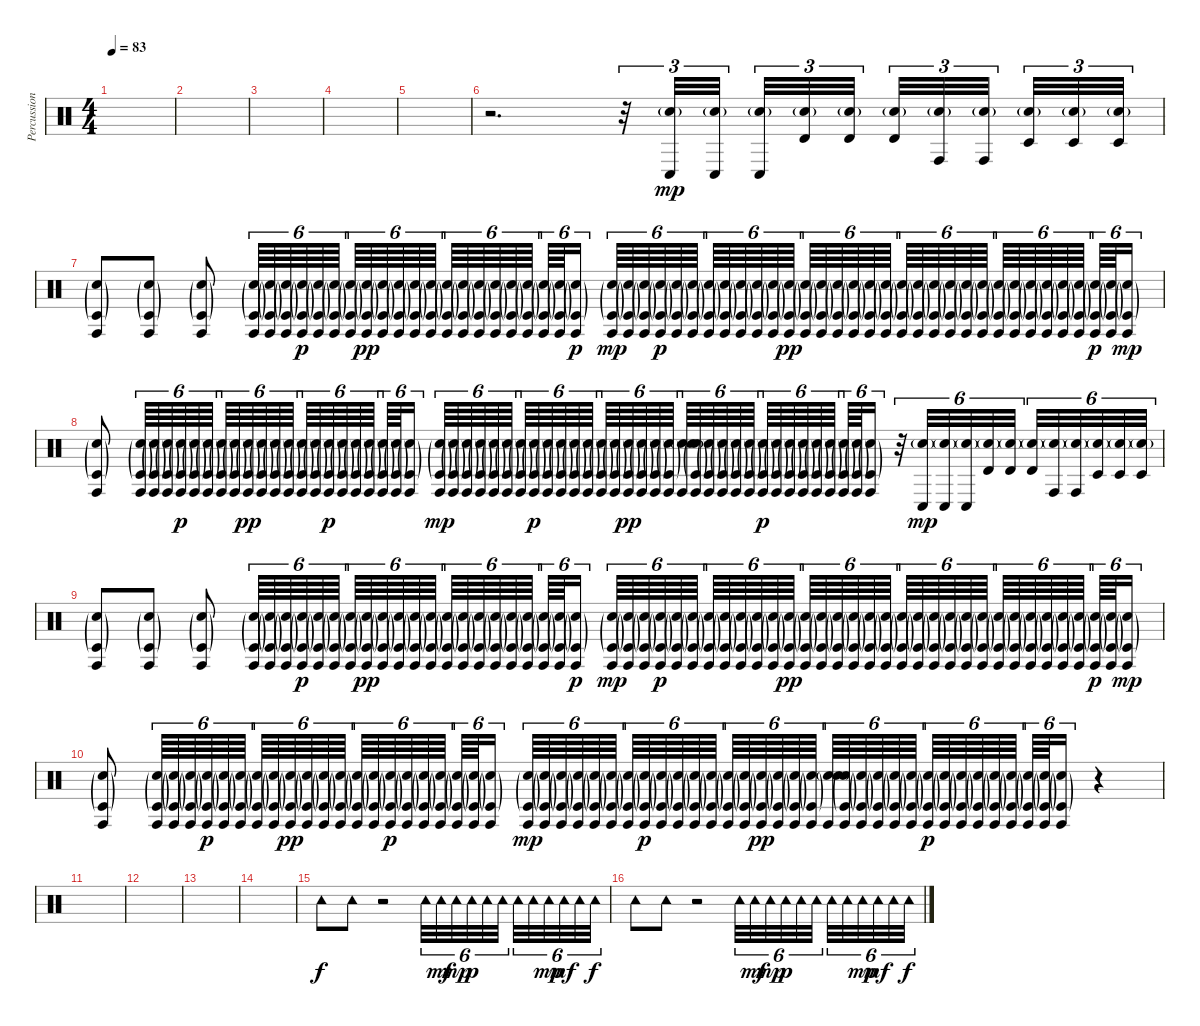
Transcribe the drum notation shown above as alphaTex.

\track ("Percussions" "Percussion") {instrument percussion}
\staff {score}
\articulation defaults
\ts (4 4)
\tempo 83
\clef neutral
\ks c
|
|
|
|
|
r.2{d} r.32{tu (3 2)} ("Conga low (hit)" "Snare (hit) 2"{g}).32{tu (3 2) dy mp} ("Conga low (hit)" "Snare (hit) 2"{g}).32{tu (3 2)} ("Conga low (hit)" "Snare (hit) 2"{g}).32{tu (3 2)} ("Timbale high (hit)" "Snare (hit) 2"{g}).32{tu (3 2)} ("Timbale high (hit)" "Snare (hit) 2"{g}).32{tu (3 2)} ("Timbale high (hit)" "Snare (hit) 2"{g}).32{tu (3 2)} ("Conga high (hit)" "Snare (hit) 2"{g}).32{tu (3 2)} ("Conga high (hit)" "Snare (hit) 2"{g}).32{tu (3 2)} ("Timbale low (hit)" "Snare (hit) 2"{g}).32{tu (3 2)} ("Timbale low (hit)" "Snare (hit) 2"{g}).32{tu (3 2)} ("Timbale low (hit)" "Snare (hit) 2"{g}).32{tu (3 2)} |
("Conga high (hit)" "Timbale low (hit)"{g} "Snare (hit) 2"{g}).8 ("Conga high (hit)" "Timbale low (hit)"{g} "Snare (hit) 2"{g}).8 ("Conga high (hit)" "Timbale low (hit)"{g} "Snare (hit) 2"{g}).8 ("Conga high (hit)" "Timbale low (hit)"{g} "Snare (hit) 2"{g}).64{tu (6 4)} ("Conga high (hit)" "Timbale low (hit)"{g} "Snare (hit) 2"{g}).64{tu (6 4)} ("Conga high (hit)" "Timbale low (hit)"{g} "Snare (hit) 2"{g}).64{tu (6 4)} ("Conga high (hit)" "Timbale low (hit)"{g} "Snare (hit) 2"{g}).64{tu (6 4) dy p} ("Conga high (hit)" "Timbale low (hit)"{g} "Snare (hit) 2"{g}).64{tu (6 4)} ("Conga high (hit)" "Timbale low (hit)"{g} "Snare (hit) 2"{g}).64{tu (6 4)} ("Conga high (hit)" "Timbale low (hit)"{g} "Snare (hit) 2"{g}).64{tu (6 4)} ("Conga high (hit)" "Timbale low (hit)"{g} "Snare (hit) 2"{g}).64{tu (6 4) dy pp} ("Conga high (hit)" "Timbale low (hit)"{g} "Snare (hit) 2"{g}).64{tu (6 4)} ("Conga high (hit)" "Timbale low (hit)"{g} "Snare (hit) 2"{g}).64{tu (6 4)} ("Conga high (hit)" "Timbale low (hit)"{g} "Snare (hit) 2"{g}).64{tu (6 4)} ("Conga high (hit)" "Timbale low (hit)"{g} "Snare (hit) 2"{g}).64{tu (6 4)} ("Conga high (hit)" "Timbale low (hit)"{g} "Snare (hit) 2"{g}).64{tu (6 4)} ("Conga high (hit)" "Timbale low (hit)"{g} "Snare (hit) 2"{g}).64{tu (6 4)} ("Conga high (hit)" "Timbale low (hit)"{g} "Snare (hit) 2"{g}).64{tu (6 4)} ("Conga high (hit)" "Timbale low (hit)"{g} "Snare (hit) 2"{g}).64{tu (6 4)} ("Conga high (hit)" "Timbale low (hit)"{g} "Snare (hit) 2"{g}).64{tu (6 4)} ("Conga high (hit)" "Timbale low (hit)"{g} "Snare (hit) 2"{g}).64{tu (6 4)} ("Conga high (hit)" "Timbale low (hit)"{g} "Snare (hit) 2"{g}).64{tu (6 4)} ("Conga high (hit)" "Timbale low (hit)"{g} "Snare (hit) 2"{g}).64{tu (6 4)} ("Conga high (hit)" "Timbale low (hit)"{g} "Snare (hit) 2"{g}).16{tu (6 4) dy p} ("Conga high (hit)" "Timbale low (hit)"{g} "Snare (hit) 2"{g}).64{tu (6 4) dy mp} ("Conga high (hit)" "Timbale low (hit)"{g} "Snare (hit) 2"{g}).64{tu (6 4)} ("Conga high (hit)" "Timbale low (hit)"{g} "Snare (hit) 2"{g}).64{tu (6 4)} ("Conga high (hit)" "Timbale low (hit)"{g} "Snare (hit) 2"{g}).64{tu (6 4) dy p} ("Conga high (hit)" "Timbale low (hit)"{g} "Snare (hit) 2"{g}).64{tu (6 4)} ("Conga high (hit)" "Timbale low (hit)"{g} "Snare (hit) 2"{g}).64{tu (6 4)} ("Conga high (hit)" "Timbale low (hit)"{g} "Snare (hit) 2"{g}).64{tu (6 4)} ("Conga high (hit)" "Timbale low (hit)"{g} "Snare (hit) 2"{g}).64{tu (6 4)} ("Conga high (hit)" "Timbale low (hit)"{g} "Snare (hit) 2"{g}).64{tu (6 4)} ("Conga high (hit)" "Timbale low (hit)"{g} "Snare (hit) 2"{g}).64{tu (6 4)} ("Conga high (hit)" "Timbale low (hit)"{g} "Snare (hit) 2"{g}).64{tu (6 4)} ("Conga high (hit)" "Timbale low (hit)"{g} "Snare (hit) 2"{g}).64{tu (6 4) dy pp} ("Conga high (hit)" "Timbale low (hit)"{g} "Snare (hit) 2"{g}).64{tu (6 4)} ("Conga high (hit)" "Timbale low (hit)"{g} "Snare (hit) 2"{g}).64{tu (6 4)} ("Conga high (hit)" "Timbale low (hit)"{g} "Snare (hit) 2"{g}).64{tu (6 4)} ("Conga high (hit)" "Timbale low (hit)"{g} "Snare (hit) 2"{g}).64{tu (6 4)} ("Conga high (hit)" "Timbale low (hit)"{g} "Snare (hit) 2"{g}).64{tu (6 4)} ("Conga high (hit)" "Timbale low (hit)"{g} "Snare (hit) 2"{g}).64{tu (6 4)} ("Conga high (hit)" "Timbale low (hit)"{g} "Snare (hit) 2"{g}).64{tu (6 4)} ("Conga high (hit)" "Timbale low (hit)"{g} "Snare (hit) 2"{g}).64{tu (6 4)} ("Conga high (hit)" "Timbale low (hit)"{g} "Snare (hit) 2"{g}).64{tu (6 4)} ("Conga high (hit)" "Timbale low (hit)"{g} "Snare (hit) 2"{g}).64{tu (6 4)} ("Conga high (hit)" "Timbale low (hit)"{g} "Snare (hit) 2"{g}).64{tu (6 4)} ("Conga high (hit)" "Timbale low (hit)"{g} "Snare (hit) 2"{g}).64{tu (6 4)} ("Conga high (hit)" "Timbale low (hit)"{g} "Snare (hit) 2"{g}).64{tu (6 4)} ("Conga high (hit)" "Timbale low (hit)"{g} "Snare (hit) 2"{g}).64{tu (6 4)} ("Conga high (hit)" "Timbale low (hit)"{g} "Snare (hit) 2"{g}).64{tu (6 4)} ("Conga high (hit)" "Timbale low (hit)"{g} "Snare (hit) 2"{g}).64{tu (6 4)} ("Conga high (hit)" "Timbale low (hit)"{g} "Snare (hit) 2"{g}).64{tu (6 4)} ("Conga high (hit)" "Timbale low (hit)"{g} "Snare (hit) 2"{g}).64{tu (6 4)} ("Conga high (hit)" "Timbale low (hit)"{g} "Snare (hit) 2"{g}).64{tu (6 4) dy p} ("Conga high (hit)" "Timbale low (hit)"{g} "Snare (hit) 2"{g}).64{tu (6 4)} ("Conga high (hit)" "Timbale low (hit)"{g} "Snare (hit) 2"{g}).16{tu (6 4) dy mp} |
("Conga high (hit)" "Timbale low (hit)"{g} "Snare (hit) 2"{g}).8 ("Conga high (hit)" "Timbale low (hit)"{g} "Snare (hit) 2"{g}).64{tu (6 4)} ("Conga high (hit)" "Timbale low (hit)"{g} "Snare (hit) 2"{g}).64{tu (6 4)} ("Conga high (hit)" "Timbale low (hit)"{g} "Snare (hit) 2"{g}).64{tu (6 4)} ("Conga high (hit)" "Timbale low (hit)"{g} "Snare (hit) 2"{g}).64{tu (6 4) dy p} ("Conga high (hit)" "Timbale low (hit)"{g} "Snare (hit) 2"{g}).64{tu (6 4)} ("Conga high (hit)" "Timbale low (hit)"{g} "Snare (hit) 2"{g}).64{tu (6 4)} ("Conga high (hit)" "Timbale low (hit)"{g} "Snare (hit) 2"{g}).64{tu (6 4)} ("Conga high (hit)" "Timbale low (hit)"{g} "Snare (hit) 2"{g}).64{tu (6 4)} ("Conga high (hit)" "Timbale low (hit)"{g} "Snare (hit) 2"{g}).64{tu (6 4) dy pp} ("Conga high (hit)" "Timbale low (hit)"{g} "Snare (hit) 2"{g}).64{tu (6 4)} ("Conga high (hit)" "Timbale low (hit)"{g} "Snare (hit) 2"{g}).64{tu (6 4)} ("Conga high (hit)" "Timbale low (hit)"{g} "Snare (hit) 2"{g}).64{tu (6 4)} ("Conga high (hit)" "Timbale low (hit)"{g} "Snare (hit) 2"{g}).64{tu (6 4)} ("Conga high (hit)" "Timbale low (hit)"{g} "Snare (hit) 2"{g}).64{tu (6 4)} ("Conga high (hit)" "Timbale low (hit)"{g} "Snare (hit) 2"{g}).64{tu (6 4) dy p} ("Conga high (hit)" "Timbale low (hit)"{g} "Snare (hit) 2"{g}).64{tu (6 4)} ("Conga high (hit)" "Timbale low (hit)"{g} "Snare (hit) 2"{g}).64{tu (6 4)} ("Conga high (hit)" "Timbale low (hit)"{g} "Snare (hit) 2"{g}).64{tu (6 4)} ("Conga high (hit)" "Timbale low (hit)"{g} "Snare (hit) 2"{g}).64{tu (6 4)} ("Conga high (hit)" "Timbale low (hit)"{g} "Snare (hit) 2"{g}).64{tu (6 4)} ("Conga high (hit)" "Timbale low (hit)"{g} "Snare (hit) 2"{g}).16{tu (6 4)} ("Conga high (hit)" "Timbale low (hit)"{g} "Snare (hit) 2"{g}).64{tu (6 4) dy mp} ("Conga high (hit)" "Timbale low (hit)"{g} "Snare (hit) 2"{g}).64{tu (6 4)} ("Conga high (hit)" "Timbale low (hit)"{g} "Snare (hit) 2"{g}).64{tu (6 4)} ("Conga high (hit)" "Timbale low (hit)"{g} "Snare (hit) 2"{g}).64{tu (6 4)} ("Conga high (hit)" "Timbale low (hit)"{g} "Snare (hit) 2"{g}).64{tu (6 4)} ("Conga high (hit)" "Timbale low (hit)"{g} "Snare (hit) 2"{g}).64{tu (6 4)} ("Conga high (hit)" "Timbale low (hit)"{g} "Snare (hit) 2"{g}).64{tu (6 4)} ("Conga high (hit)" "Timbale low (hit)"{g} "Snare (hit) 2"{g}).64{tu (6 4) dy p} ("Conga high (hit)" "Timbale low (hit)"{g} "Snare (hit) 2"{g}).64{tu (6 4)} ("Conga high (hit)" "Timbale low (hit)"{g} "Snare (hit) 2"{g}).64{tu (6 4)} ("Conga high (hit)" "Timbale low (hit)"{g} "Snare (hit) 2"{g}).64{tu (6 4)} ("Conga high (hit)" "Timbale low (hit)"{g} "Snare (hit) 2"{g}).64{tu (6 4)} ("Conga high (hit)" "Timbale low (hit)"{g} "Snare (hit) 2"{g}).64{tu (6 4)} ("Conga high (hit)" "Timbale low (hit)"{g} "Snare (hit) 2"{g}).64{tu (6 4)} ("Conga high (hit)" "Timbale low (hit)"{g} "Snare (hit) 2"{g}).64{tu (6 4) dy pp} ("Conga high (hit)" "Timbale low (hit)"{g} "Snare (hit) 2"{g}).64{tu (6 4)} ("Conga high (hit)" "Timbale low (hit)"{g} "Snare (hit) 2"{g}).64{tu (6 4)} ("Conga high (hit)" "Timbale low (hit)"{g} "Snare (hit) 2"{g}).64{tu (6 4)} ("Conga high (hit)" "Snare (hit)"{g} "Snare (hit) 2"{g}).64{tu (6 4)} ("Conga high (hit)" "Timbale low (hit)"{g} "Snare (hit) 2"{g}).64{tu (6 4)} ("Conga high (hit)" "Timbale low (hit)"{g} "Snare (hit) 2"{g}).64{tu (6 4)} ("Conga high (hit)" "Timbale low (hit)"{g} "Snare (hit) 2"{g}).64{tu (6 4)} ("Conga high (hit)" "Timbale low (hit)"{g} "Snare (hit) 2"{g}).64{tu (6 4)} ("Conga high (hit)" "Timbale low (hit)"{g} "Snare (hit) 2"{g}).64{tu (6 4)} ("Conga high (hit)" "Timbale low (hit)"{g} "Snare (hit) 2"{g}).64{tu (6 4) dy p} ("Conga high (hit)" "Timbale low (hit)"{g} "Snare (hit) 2"{g}).64{tu (6 4)} ("Conga high (hit)" "Timbale low (hit)"{g} "Snare (hit) 2"{g}).64{tu (6 4)} ("Conga high (hit)" "Timbale low (hit)"{g} "Snare (hit) 2"{g}).64{tu (6 4)} ("Conga high (hit)" "Timbale low (hit)"{g} "Snare (hit) 2"{g}).64{tu (6 4)} ("Conga high (hit)" "Timbale low (hit)"{g} "Snare (hit) 2"{g}).64{tu (6 4)} ("Conga high (hit)" "Timbale low (hit)"{g} "Snare (hit) 2"{g}).64{tu (6 4)} ("Conga high (hit)" "Timbale low (hit)"{g} "Snare (hit) 2"{g}).64{tu (6 4)} ("Conga high (hit)" "Timbale low (hit)"{g} "Snare (hit) 2"{g}).16{tu (6 4)} r.32{tu (6 4)} ("Conga low (hit)" "Snare (hit) 2"{g}).32{tu (6 4) dy mp} ("Conga low (hit)" "Snare (hit) 2"{g}).32{tu (6 4)} ("Conga low (hit)" "Snare (hit) 2"{g}).32{tu (6 4)} ("Timbale high (hit)" "Snare (hit) 2"{g}).32{tu (6 4)} ("Timbale high (hit)" "Snare (hit) 2"{g}).32{tu (6 4)} ("Timbale high (hit)" "Snare (hit) 2"{g}).32{tu (6 4)} ("Conga high (hit)" "Snare (hit) 2"{g}).32{tu (6 4)} ("Conga high (hit)" "Snare (hit) 2"{g}).32{tu (6 4)} ("Timbale low (hit)" "Snare (hit) 2"{g}).32{tu (6 4)} ("Timbale low (hit)" "Snare (hit) 2"{g}).32{tu (6 4)} ("Timbale low (hit)" "Snare (hit) 2"{g}).32{tu (6 4)} |
("Conga high (hit)" "Timbale low (hit)"{g} "Snare (hit) 2"{g}).8 ("Conga high (hit)" "Timbale low (hit)"{g} "Snare (hit) 2"{g}).8 ("Conga high (hit)" "Timbale low (hit)"{g} "Snare (hit) 2"{g}).8 ("Conga high (hit)" "Timbale low (hit)"{g} "Snare (hit) 2"{g}).64{tu (6 4)} ("Conga high (hit)" "Timbale low (hit)"{g} "Snare (hit) 2"{g}).64{tu (6 4)} ("Conga high (hit)" "Timbale low (hit)"{g} "Snare (hit) 2"{g}).64{tu (6 4)} ("Conga high (hit)" "Timbale low (hit)"{g} "Snare (hit) 2"{g}).64{tu (6 4) dy p} ("Conga high (hit)" "Timbale low (hit)"{g} "Snare (hit) 2"{g}).64{tu (6 4)} ("Conga high (hit)" "Timbale low (hit)"{g} "Snare (hit) 2"{g}).64{tu (6 4)} ("Conga high (hit)" "Timbale low (hit)"{g} "Snare (hit) 2"{g}).64{tu (6 4)} ("Conga high (hit)" "Timbale low (hit)"{g} "Snare (hit) 2"{g}).64{tu (6 4) dy pp} ("Conga high (hit)" "Timbale low (hit)"{g} "Snare (hit) 2"{g}).64{tu (6 4)} ("Conga high (hit)" "Timbale low (hit)"{g} "Snare (hit) 2"{g}).64{tu (6 4)} ("Conga high (hit)" "Timbale low (hit)"{g} "Snare (hit) 2"{g}).64{tu (6 4)} ("Conga high (hit)" "Timbale low (hit)"{g} "Snare (hit) 2"{g}).64{tu (6 4)} ("Conga high (hit)" "Timbale low (hit)"{g} "Snare (hit) 2"{g}).64{tu (6 4)} ("Conga high (hit)" "Timbale low (hit)"{g} "Snare (hit) 2"{g}).64{tu (6 4)} ("Conga high (hit)" "Timbale low (hit)"{g} "Snare (hit) 2"{g}).64{tu (6 4)} ("Conga high (hit)" "Timbale low (hit)"{g} "Snare (hit) 2"{g}).64{tu (6 4)} ("Conga high (hit)" "Timbale low (hit)"{g} "Snare (hit) 2"{g}).64{tu (6 4)} ("Conga high (hit)" "Timbale low (hit)"{g} "Snare (hit) 2"{g}).64{tu (6 4)} ("Conga high (hit)" "Timbale low (hit)"{g} "Snare (hit) 2"{g}).64{tu (6 4)} ("Conga high (hit)" "Timbale low (hit)"{g} "Snare (hit) 2"{g}).64{tu (6 4)} ("Conga high (hit)" "Timbale low (hit)"{g} "Snare (hit) 2"{g}).16{tu (6 4) dy p} ("Conga high (hit)" "Timbale low (hit)"{g} "Snare (hit) 2"{g}).64{tu (6 4) dy mp} ("Conga high (hit)" "Timbale low (hit)"{g} "Snare (hit) 2"{g}).64{tu (6 4)} ("Conga high (hit)" "Timbale low (hit)"{g} "Snare (hit) 2"{g}).64{tu (6 4)} ("Conga high (hit)" "Timbale low (hit)"{g} "Snare (hit) 2"{g}).64{tu (6 4) dy p} ("Conga high (hit)" "Timbale low (hit)"{g} "Snare (hit) 2"{g}).64{tu (6 4)} ("Conga high (hit)" "Timbale low (hit)"{g} "Snare (hit) 2"{g}).64{tu (6 4)} ("Conga high (hit)" "Timbale low (hit)"{g} "Snare (hit) 2"{g}).64{tu (6 4)} ("Conga high (hit)" "Timbale low (hit)"{g} "Snare (hit) 2"{g}).64{tu (6 4)} ("Conga high (hit)" "Timbale low (hit)"{g} "Snare (hit) 2"{g}).64{tu (6 4)} ("Conga high (hit)" "Timbale low (hit)"{g} "Snare (hit) 2"{g}).64{tu (6 4)} ("Conga high (hit)" "Timbale low (hit)"{g} "Snare (hit) 2"{g}).64{tu (6 4)} ("Conga high (hit)" "Timbale low (hit)"{g} "Snare (hit) 2"{g}).64{tu (6 4) dy pp} ("Conga high (hit)" "Timbale low (hit)"{g} "Snare (hit) 2"{g}).64{tu (6 4)} ("Conga high (hit)" "Timbale low (hit)"{g} "Snare (hit) 2"{g}).64{tu (6 4)} ("Conga high (hit)" "Timbale low (hit)"{g} "Snare (hit) 2"{g}).64{tu (6 4)} ("Conga high (hit)" "Timbale low (hit)"{g} "Snare (hit) 2"{g}).64{tu (6 4)} ("Conga high (hit)" "Timbale low (hit)"{g} "Snare (hit) 2"{g}).64{tu (6 4)} ("Conga high (hit)" "Timbale low (hit)"{g} "Snare (hit) 2"{g}).64{tu (6 4)} ("Conga high (hit)" "Timbale low (hit)"{g} "Snare (hit) 2"{g}).64{tu (6 4)} ("Conga high (hit)" "Timbale low (hit)"{g} "Snare (hit) 2"{g}).64{tu (6 4)} ("Conga high (hit)" "Timbale low (hit)"{g} "Snare (hit) 2"{g}).64{tu (6 4)} ("Conga high (hit)" "Timbale low (hit)"{g} "Snare (hit) 2"{g}).64{tu (6 4)} ("Conga high (hit)" "Timbale low (hit)"{g} "Snare (hit) 2"{g}).64{tu (6 4)} ("Conga high (hit)" "Timbale low (hit)"{g} "Snare (hit) 2"{g}).64{tu (6 4)} ("Conga high (hit)" "Timbale low (hit)"{g} "Snare (hit) 2"{g}).64{tu (6 4)} ("Conga high (hit)" "Timbale low (hit)"{g} "Snare (hit) 2"{g}).64{tu (6 4)} ("Conga high (hit)" "Timbale low (hit)"{g} "Snare (hit) 2"{g}).64{tu (6 4)} ("Conga high (hit)" "Timbale low (hit)"{g} "Snare (hit) 2"{g}).64{tu (6 4)} ("Conga high (hit)" "Timbale low (hit)"{g} "Snare (hit) 2"{g}).64{tu (6 4)} ("Conga high (hit)" "Timbale low (hit)"{g} "Snare (hit) 2"{g}).64{tu (6 4)} ("Conga high (hit)" "Timbale low (hit)"{g} "Snare (hit) 2"{g}).64{tu (6 4) dy p} ("Conga high (hit)" "Timbale low (hit)"{g} "Snare (hit) 2"{g}).64{tu (6 4)} ("Conga high (hit)" "Timbale low (hit)"{g} "Snare (hit) 2"{g}).16{tu (6 4) dy mp} |
("Conga high (hit)" "Timbale low (hit)"{g} "Snare (hit) 2"{g}).8 ("Conga high (hit)" "Timbale low (hit)"{g} "Snare (hit) 2"{g}).64{tu (6 4)} ("Conga high (hit)" "Timbale low (hit)"{g} "Snare (hit) 2"{g}).64{tu (6 4)} ("Conga high (hit)" "Timbale low (hit)"{g} "Snare (hit) 2"{g}).64{tu (6 4)} ("Conga high (hit)" "Timbale low (hit)"{g} "Snare (hit) 2"{g}).64{tu (6 4) dy p} ("Conga high (hit)" "Timbale low (hit)"{g} "Snare (hit) 2"{g}).64{tu (6 4)} ("Conga high (hit)" "Timbale low (hit)"{g} "Snare (hit) 2"{g}).64{tu (6 4)} ("Conga high (hit)" "Timbale low (hit)"{g} "Snare (hit) 2"{g}).64{tu (6 4)} ("Conga high (hit)" "Timbale low (hit)"{g} "Snare (hit) 2"{g}).64{tu (6 4)} ("Conga high (hit)" "Timbale low (hit)"{g} "Snare (hit) 2"{g}).64{tu (6 4) dy pp} ("Conga high (hit)" "Timbale low (hit)"{g} "Snare (hit) 2"{g}).64{tu (6 4)} ("Conga high (hit)" "Timbale low (hit)"{g} "Snare (hit) 2"{g}).64{tu (6 4)} ("Conga high (hit)" "Timbale low (hit)"{g} "Snare (hit) 2"{g}).64{tu (6 4)} ("Conga high (hit)" "Timbale low (hit)"{g} "Snare (hit) 2"{g}).64{tu (6 4)} ("Conga high (hit)" "Timbale low (hit)"{g} "Snare (hit) 2"{g}).64{tu (6 4)} ("Conga high (hit)" "Timbale low (hit)"{g} "Snare (hit) 2"{g}).64{tu (6 4) dy p} ("Conga high (hit)" "Timbale low (hit)"{g} "Snare (hit) 2"{g}).64{tu (6 4)} ("Conga high (hit)" "Timbale low (hit)"{g} "Snare (hit) 2"{g}).64{tu (6 4)} ("Conga high (hit)" "Timbale low (hit)"{g} "Snare (hit) 2"{g}).64{tu (6 4)} ("Conga high (hit)" "Timbale low (hit)"{g} "Snare (hit) 2"{g}).64{tu (6 4)} ("Conga high (hit)" "Timbale low (hit)"{g} "Snare (hit) 2"{g}).64{tu (6 4)} ("Conga high (hit)" "Timbale low (hit)"{g} "Snare (hit) 2"{g}).16{tu (6 4)} ("Conga high (hit)" "Timbale low (hit)"{g} "Snare (hit) 2"{g}).64{tu (6 4) dy mp} ("Conga high (hit)" "Timbale low (hit)"{g} "Snare (hit) 2"{g}).64{tu (6 4)} ("Conga high (hit)" "Timbale low (hit)"{g} "Snare (hit) 2"{g}).64{tu (6 4)} ("Conga high (hit)" "Timbale low (hit)"{g} "Snare (hit) 2"{g}).64{tu (6 4)} ("Conga high (hit)" "Timbale low (hit)"{g} "Snare (hit) 2"{g}).64{tu (6 4)} ("Conga high (hit)" "Timbale low (hit)"{g} "Snare (hit) 2"{g}).64{tu (6 4)} ("Conga high (hit)" "Timbale low (hit)"{g} "Snare (hit) 2"{g}).64{tu (6 4)} ("Conga high (hit)" "Timbale low (hit)"{g} "Snare (hit) 2"{g}).64{tu (6 4) dy p} ("Conga high (hit)" "Timbale low (hit)"{g} "Snare (hit) 2"{g}).64{tu (6 4)} ("Conga high (hit)" "Timbale low (hit)"{g} "Snare (hit) 2"{g}).64{tu (6 4)} ("Conga high (hit)" "Timbale low (hit)"{g} "Snare (hit) 2"{g}).64{tu (6 4)} ("Conga high (hit)" "Timbale low (hit)"{g} "Snare (hit) 2"{g}).64{tu (6 4)} ("Conga high (hit)" "Timbale low (hit)"{g} "Snare (hit) 2"{g}).64{tu (6 4)} ("Conga high (hit)" "Timbale low (hit)"{g} "Snare (hit) 2"{g}).64{tu (6 4)} ("Conga high (hit)" "Timbale low (hit)"{g} "Snare (hit) 2"{g}).64{tu (6 4) dy pp} ("Conga high (hit)" "Timbale low (hit)"{g} "Snare (hit) 2"{g}).64{tu (6 4)} ("Conga high (hit)" "Timbale low (hit)"{g} "Snare (hit) 2"{g}).64{tu (6 4)} ("Conga high (hit)" "Timbale low (hit)"{g} "Snare (hit) 2"{g}).64{tu (6 4)} ("Conga high (hit)" "Snare (hit)"{g} "Snare (hit) 2"{g}).64{tu (6 4)} ("Conga high (hit)" "Timbale low (hit)"{g} "Snare (hit) 2"{g}).64{tu (6 4)} ("Conga high (hit)" "Timbale low (hit)"{g} "Snare (hit) 2"{g}).64{tu (6 4)} ("Conga high (hit)" "Timbale low (hit)"{g} "Snare (hit) 2"{g}).64{tu (6 4)} ("Conga high (hit)" "Timbale low (hit)"{g} "Snare (hit) 2"{g}).64{tu (6 4)} ("Conga high (hit)" "Timbale low (hit)"{g} "Snare (hit) 2"{g}).64{tu (6 4)} ("Conga high (hit)" "Timbale low (hit)"{g} "Snare (hit) 2"{g}).64{tu (6 4) dy p} ("Conga high (hit)" "Timbale low (hit)"{g} "Snare (hit) 2"{g}).64{tu (6 4)} ("Conga high (hit)" "Timbale low (hit)"{g} "Snare (hit) 2"{g}).64{tu (6 4)} ("Conga high (hit)" "Timbale low (hit)"{g} "Snare (hit) 2"{g}).64{tu (6 4)} ("Conga high (hit)" "Timbale low (hit)"{g} "Snare (hit) 2"{g}).64{tu (6 4)} ("Conga high (hit)" "Timbale low (hit)"{g} "Snare (hit) 2"{g}).64{tu (6 4)} ("Conga high (hit)" "Timbale low (hit)"{g} "Snare (hit) 2"{g}).64{tu (6 4)} ("Conga high (hit)" "Timbale low (hit)"{g} "Snare (hit) 2"{g}).64{tu (6 4)} ("Conga high (hit)" "Timbale low (hit)"{g} "Snare (hit) 2"{g}).16{tu (6 4)} r.4 |
|
|
|
|
"Tambourine (hit)".8{dy f} "Tambourine (hit)".8 r.2 "Tambourine (hit)".32{tu (6 4)} "Tambourine (hit)".32{tu (6 4) dy mf} "Tambourine (hit)".32{tu (6 4) dy mp} "Tambourine (hit)".32{tu (6 4) dy p} "Tambourine (hit)".32{tu (6 4)} "Tambourine (hit)".32{tu (6 4)} "Tambourine (hit)".32{tu (6 4)} "Tambourine (hit)".32{tu (6 4)} "Tambourine (hit)".32{tu (6 4) dy mp} "Tambourine (hit)".32{tu (6 4) dy mf} "Tambourine (hit)".32{tu (6 4)} "Tambourine (hit)".32{tu (6 4) dy f} |
"Tambourine (hit)".8 "Tambourine (hit)".8 r.2 "Tambourine (hit)".32{tu (6 4)} "Tambourine (hit)".32{tu (6 4) dy mf} "Tambourine (hit)".32{tu (6 4) dy mp} "Tambourine (hit)".32{tu (6 4) dy p} "Tambourine (hit)".32{tu (6 4)} "Tambourine (hit)".32{tu (6 4)} "Tambourine (hit)".32{tu (6 4)} "Tambourine (hit)".32{tu (6 4)} "Tambourine (hit)".32{tu (6 4) dy mp} "Tambourine (hit)".32{tu (6 4) dy mf} "Tambourine (hit)".32{tu (6 4)} "Tambourine (hit)".32{tu (6 4) dy f}
